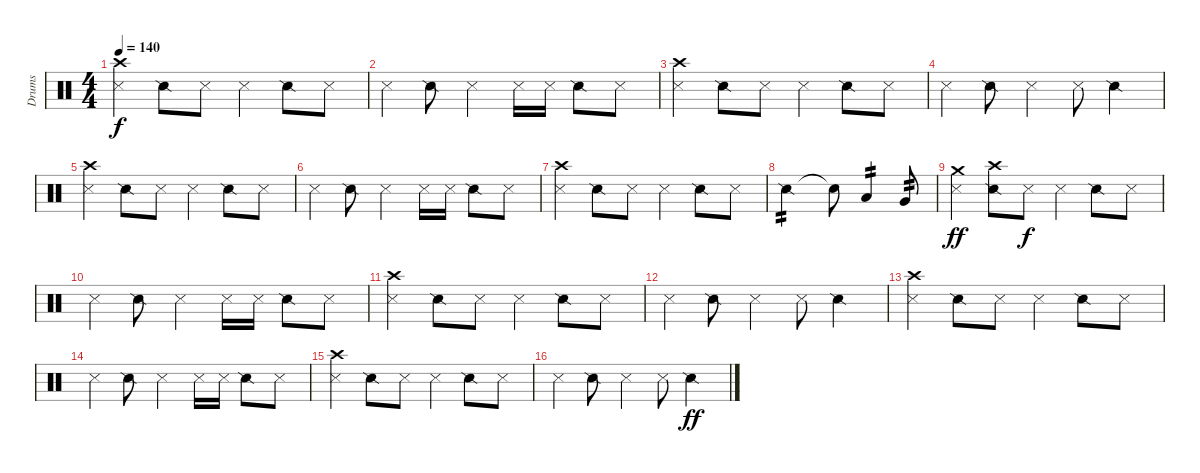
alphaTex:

\track ("Drums" "Drums") {instrument percussion}
\staff {score}
\articulation defaults
\ts (4 4)
\tempo 140
\clef neutral
\ks c
("Crash high (hit)" "Metronome (hit)").4{dy f} "Snare (side stick) 2".8 "Metronome (hit)".8 "Metronome (hit)".4 "Snare (side stick) 2".8 "Metronome (hit)".8 |
"Metronome (hit)".4 "Snare (side stick) 2".8 "Metronome (hit)".4 "Metronome (hit)".16 "Metronome (hit)".16 "Snare (side stick) 2".8 "Metronome (hit)".8 |
("Crash high (hit)" "Metronome (hit)").4 "Snare (side stick) 2".8 "Metronome (hit)".8 "Metronome (hit)".4 "Snare (side stick) 2".8 "Metronome (hit)".8 |
"Metronome (hit)".4 "Snare (side stick) 2".8 "Metronome (hit)".4 "Metronome (hit)".8 "Snare (side stick) 2".4 |
("Crash high (hit)" "Metronome (hit)").4 "Snare (side stick) 2".8 "Metronome (hit)".8 "Metronome (hit)".4 "Snare (side stick) 2".8 "Metronome (hit)".8 |
"Metronome (hit)".4 "Snare (side stick) 2".8 "Metronome (hit)".4 "Metronome (hit)".16 "Metronome (hit)".16 "Snare (side stick) 2".8 "Metronome (hit)".8 |
("Crash high (hit)" "Metronome (hit)").4 "Snare (side stick) 2".8 "Metronome (hit)".8 "Metronome (hit)".4 "Snare (side stick) 2".8 "Metronome (hit)".8 |
"Snare (side stick) 2".2{tp 2} "Snare (hit)"{t}.8 "Low Tom (hit)".4{tp 2} "Very Low Tom (hit)".8{tp 2} |
("Crash medium (hit)" "Metronome (hit)").4{dy ff} ("Snare (side stick) 2" "Crash high (hit)").8 "Metronome (hit)".8{dy f} "Metronome (hit)".4 "Snare (side stick) 2".8 "Metronome (hit)".8 |
"Metronome (hit)".4 "Snare (side stick) 2".8 "Metronome (hit)".4 "Metronome (hit)".16 "Metronome (hit)".16 "Snare (side stick) 2".8 "Metronome (hit)".8 |
("Crash high (hit)" "Metronome (hit)").4 "Snare (side stick) 2".8 "Metronome (hit)".8 "Metronome (hit)".4 "Snare (side stick) 2".8 "Metronome (hit)".8 |
"Metronome (hit)".4 "Snare (side stick) 2".8 "Metronome (hit)".4 "Metronome (hit)".8 "Snare (side stick) 2".4 |
("Crash high (hit)" "Metronome (hit)").4 "Snare (side stick) 2".8 "Metronome (hit)".8 "Metronome (hit)".4 "Snare (side stick) 2".8 "Metronome (hit)".8 |
"Metronome (hit)".4 "Snare (side stick) 2".8 "Metronome (hit)".4 "Metronome (hit)".16 "Metronome (hit)".16 "Snare (side stick) 2".8 "Metronome (hit)".8 |
("Crash high (hit)" "Metronome (hit)").4 "Snare (side stick) 2".8 "Metronome (hit)".8 "Metronome (hit)".4 "Snare (side stick) 2".8 "Metronome (hit)".8 |
"Metronome (hit)".4 "Snare (side stick) 2".8 "Metronome (hit)".4 "Metronome (hit)".8 "Snare (side stick) 2".4{dy ff}
